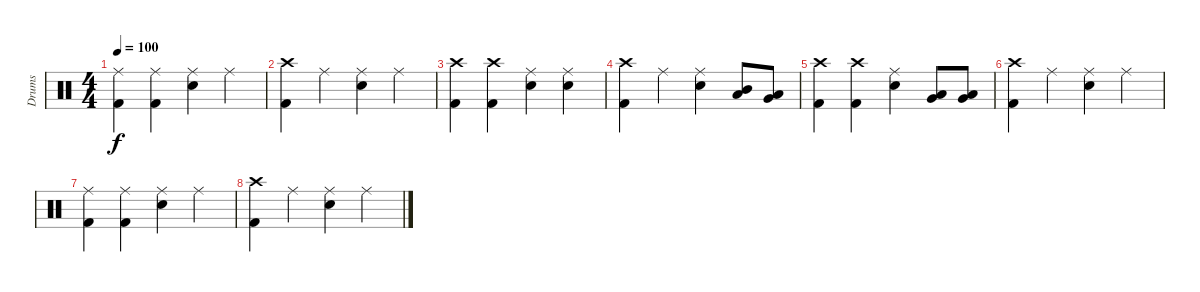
\track ("Drums" "Drums") {instrument percussion}
\staff {score}
\articulation defaults
\ts (4 4)
\tempo 100
\clef neutral
\ks c
("Ride (middle)" "Kick (hit) 2").4{dy f} ("Ride (middle)" "Kick (hit) 2").4 ("Ride (middle)" "Snare (hit) 2").4 "Ride (middle)".4 |
("Crash high (hit)" "Kick (hit) 2").4 "Ride (middle)".4 ("Ride (middle)" "Snare (hit) 2").4 "Ride (middle)".4 |
("Crash high (hit)" "Kick (hit) 2").4 ("Crash high (hit)" "Kick (hit) 2").4 ("Ride (middle)" "Snare (hit) 2").4 ("Ride (middle)" "Snare (hit) 2").4 |
("Crash high (hit)" "Kick (hit) 2").4 "Ride (middle)".4 ("Ride (middle)" "Snare (hit) 2").4 ("Low Tom (hit)" "Mid Tom (hit)").8 ("Very Low Tom (hit)" "Low Tom (hit)").8 |
("Crash high (hit)" "Kick (hit) 2").4 ("Crash high (hit)" "Kick (hit) 2").4 ("Ride (middle)" "Snare (hit) 2").4 ("Very Low Tom (hit)" "Low Tom (hit)").8 ("Very Low Tom (hit)" "Low Tom (hit)").8 |
("Crash high (hit)" "Kick (hit) 2").4 "Ride (middle)".4 ("Ride (middle)" "Snare (hit) 2").4 "Ride (middle)".4 |
("Ride (middle)" "Kick (hit) 2").4 ("Ride (middle)" "Kick (hit) 2").4 ("Ride (middle)" "Snare (hit) 2").4 "Ride (middle)".4 |
("Crash high (hit)" "Kick (hit) 2").4 "Ride (middle)".4 ("Ride (middle)" "Snare (hit) 2").4 "Ride (middle)".4
